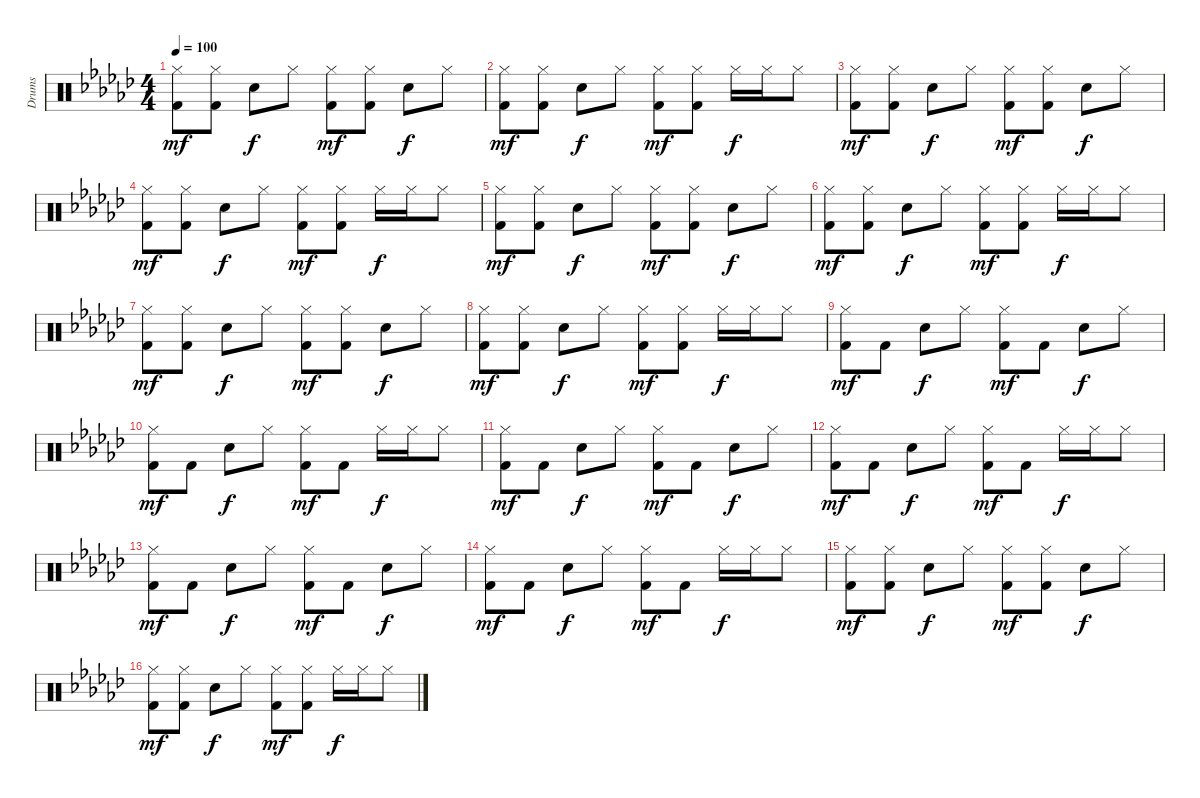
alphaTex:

\track ("Drums" "Drums") {instrument percussion}
\staff {score}
\articulation defaults
\ts (4 4)
\tempo 100
\clef neutral
\ks ebminor
("Hi-Hat (closed)" "Kick (hit) 2").8{dy mf} ("Hi-Hat (closed)" "Kick (hit) 2").8 "Snare (hit) 2".8{dy f} "Hi-Hat (closed)".8 ("Hi-Hat (closed)" "Kick (hit) 2").8{dy mf} ("Hi-Hat (closed)" "Kick (hit) 2").8 "Snare (hit) 2".8{dy f} "Hi-Hat (closed)".8 |
("Hi-Hat (closed)" "Kick (hit) 2").8{dy mf} ("Hi-Hat (closed)" "Kick (hit) 2").8 "Snare (hit) 2".8{dy f} "Hi-Hat (closed)".8 ("Hi-Hat (closed)" "Kick (hit) 2").8{dy mf} ("Hi-Hat (closed)" "Kick (hit) 2").8 "Hi-Hat (closed)".16{dy f} "Hi-Hat (closed)".16 "Hi-Hat (closed)".8 |
("Hi-Hat (closed)" "Kick (hit) 2").8{dy mf} ("Hi-Hat (closed)" "Kick (hit) 2").8 "Snare (hit) 2".8{dy f} "Hi-Hat (closed)".8 ("Hi-Hat (closed)" "Kick (hit) 2").8{dy mf} ("Hi-Hat (closed)" "Kick (hit) 2").8 "Snare (hit) 2".8{dy f} "Hi-Hat (closed)".8 |
("Hi-Hat (closed)" "Kick (hit) 2").8{dy mf} ("Hi-Hat (closed)" "Kick (hit) 2").8 "Snare (hit) 2".8{dy f} "Hi-Hat (closed)".8 ("Hi-Hat (closed)" "Kick (hit) 2").8{dy mf} ("Hi-Hat (closed)" "Kick (hit) 2").8 "Hi-Hat (closed)".16{dy f} "Hi-Hat (closed)".16 "Hi-Hat (closed)".8 |
("Hi-Hat (closed)" "Kick (hit) 2").8{dy mf} ("Hi-Hat (closed)" "Kick (hit) 2").8 "Snare (hit) 2".8{dy f} "Hi-Hat (closed)".8 ("Hi-Hat (closed)" "Kick (hit) 2").8{dy mf} ("Hi-Hat (closed)" "Kick (hit) 2").8 "Snare (hit) 2".8{dy f} "Hi-Hat (closed)".8 |
("Hi-Hat (closed)" "Kick (hit) 2").8{dy mf} ("Hi-Hat (closed)" "Kick (hit) 2").8 "Snare (hit) 2".8{dy f} "Hi-Hat (closed)".8 ("Hi-Hat (closed)" "Kick (hit) 2").8{dy mf} ("Hi-Hat (closed)" "Kick (hit) 2").8 "Hi-Hat (closed)".16{dy f} "Hi-Hat (closed)".16 "Hi-Hat (closed)".8 |
("Hi-Hat (closed)" "Kick (hit) 2").8{dy mf} ("Hi-Hat (closed)" "Kick (hit) 2").8 "Snare (hit) 2".8{dy f} "Hi-Hat (closed)".8 ("Hi-Hat (closed)" "Kick (hit) 2").8{dy mf} ("Hi-Hat (closed)" "Kick (hit) 2").8 "Snare (hit) 2".8{dy f} "Hi-Hat (closed)".8 |
("Hi-Hat (closed)" "Kick (hit) 2").8{dy mf} ("Hi-Hat (closed)" "Kick (hit) 2").8 "Snare (hit) 2".8{dy f} "Hi-Hat (closed)".8 ("Hi-Hat (closed)" "Kick (hit) 2").8{dy mf} ("Hi-Hat (closed)" "Kick (hit) 2").8 "Hi-Hat (closed)".16{dy f} "Hi-Hat (closed)".16 "Hi-Hat (closed)".8 |
("Hi-Hat (closed)" "Kick (hit) 2").8{dy mf} "Kick (hit) 2".8 "Snare (hit) 2".8{dy f} "Hi-Hat (closed)".8 ("Hi-Hat (closed)" "Kick (hit) 2").8{dy mf} "Kick (hit) 2".8 "Snare (hit) 2".8{dy f} "Hi-Hat (closed)".8 |
("Hi-Hat (closed)" "Kick (hit) 2").8{dy mf} "Kick (hit) 2".8 "Snare (hit) 2".8{dy f} "Hi-Hat (closed)".8 ("Hi-Hat (closed)" "Kick (hit) 2").8{dy mf} "Kick (hit) 2".8 "Hi-Hat (closed)".16{dy f} "Hi-Hat (closed)".16 "Hi-Hat (closed)".8 |
("Hi-Hat (closed)" "Kick (hit) 2").8{dy mf} "Kick (hit) 2".8 "Snare (hit) 2".8{dy f} "Hi-Hat (closed)".8 ("Hi-Hat (closed)" "Kick (hit) 2").8{dy mf} "Kick (hit) 2".8 "Snare (hit) 2".8{dy f} "Hi-Hat (closed)".8 |
("Hi-Hat (closed)" "Kick (hit) 2").8{dy mf} "Kick (hit) 2".8 "Snare (hit) 2".8{dy f} "Hi-Hat (closed)".8 ("Hi-Hat (closed)" "Kick (hit) 2").8{dy mf} "Kick (hit) 2".8 "Hi-Hat (closed)".16{dy f} "Hi-Hat (closed)".16 "Hi-Hat (closed)".8 |
("Hi-Hat (closed)" "Kick (hit) 2").8{dy mf} "Kick (hit) 2".8 "Snare (hit) 2".8{dy f} "Hi-Hat (closed)".8 ("Hi-Hat (closed)" "Kick (hit) 2").8{dy mf} "Kick (hit) 2".8 "Snare (hit) 2".8{dy f} "Hi-Hat (closed)".8 |
("Hi-Hat (closed)" "Kick (hit) 2").8{dy mf} "Kick (hit) 2".8 "Snare (hit) 2".8{dy f} "Hi-Hat (closed)".8 ("Hi-Hat (closed)" "Kick (hit) 2").8{dy mf} "Kick (hit) 2".8 "Hi-Hat (closed)".16{dy f} "Hi-Hat (closed)".16 "Hi-Hat (closed)".8 |
("Hi-Hat (closed)" "Kick (hit) 2").8{dy mf} ("Hi-Hat (closed)" "Kick (hit) 2").8 "Snare (hit) 2".8{dy f} "Hi-Hat (closed)".8 ("Hi-Hat (closed)" "Kick (hit) 2").8{dy mf} ("Hi-Hat (closed)" "Kick (hit) 2").8 "Snare (hit) 2".8{dy f} "Hi-Hat (closed)".8 |
("Hi-Hat (closed)" "Kick (hit) 2").8{dy mf} ("Hi-Hat (closed)" "Kick (hit) 2").8 "Snare (hit) 2".8{dy f} "Hi-Hat (closed)".8 ("Hi-Hat (closed)" "Kick (hit) 2").8{dy mf} ("Hi-Hat (closed)" "Kick (hit) 2").8 "Hi-Hat (closed)".16{dy f} "Hi-Hat (closed)".16 "Hi-Hat (closed)".8
